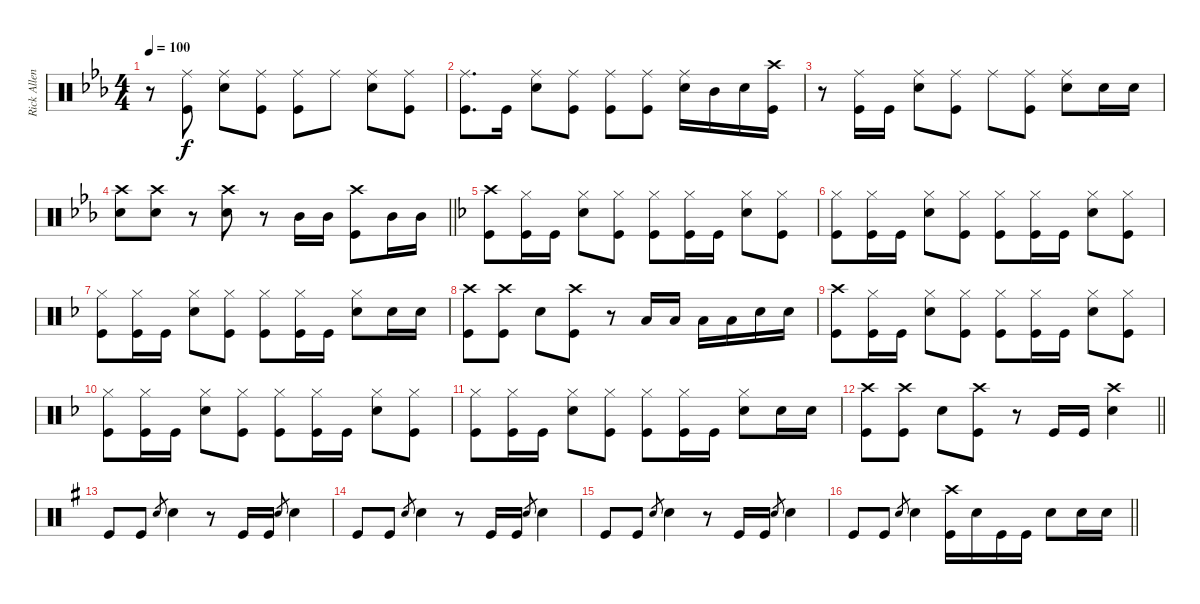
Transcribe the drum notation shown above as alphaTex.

\track ("Rick Allen" "Rick Allen") {instrument percussion}
\staff {score}
\articulation defaults
\ts (4 4)
\tempo 100
\clef neutral
\ks cminor
r.8{dy f} ("Ride (middle)" "Kick (hit)").8 ("Ride (middle)" "Snare (hit) 2").8 ("Ride (middle)" "Kick (hit)").8 ("Ride (middle)" "Kick (hit)").8 "Ride (middle)".8 ("Ride (middle)" "Snare (hit) 2").8 ("Ride (middle)" "Kick (hit)").8 |
("Ride (middle)" "Kick (hit)").8{d} "Kick (hit)".16 ("Ride (middle)" "Snare (hit) 2").8 ("Ride (middle)" "Kick (hit)").8 ("Ride (middle)" "Kick (hit)").8 ("Ride (middle)" "Kick (hit)").8 ("Ride (middle)" "Snare (hit) 2").16 "Mid Tom (hit)".16 "Snare (hit) 2".16 ("Crash high (hit)" "Kick (hit)").16 |
r.8 ("Ride (middle)" "Kick (hit)").16 "Kick (hit)".16 ("Ride (middle)" "Snare (hit) 2").8 ("Ride (middle)" "Kick (hit)").8 "Ride (middle)".8 ("Ride (middle)" "Kick (hit)").8 ("Ride (middle)" "Snare (hit) 2").8 "Snare (hit) 2".16 "Snare (hit) 2".16 |
\barLineRight lightlight
("Crash high (hit)" "Snare (hit) 2").8 ("Crash high (hit)" "Snare (hit) 2").8 r.8 ("Crash high (hit)" "Snare (hit) 2").8 r.8 "Mid Tom (hit)".16 "Mid Tom (hit)".16 ("Crash high (hit)" "Kick (hit)").8 "Mid Tom (hit)".16 "Mid Tom (hit)".16 |
\ks dminor
("Crash high (hit)" "Kick (hit)").8 ("Hi-Hat (closed)" "Kick (hit)").16 "Kick (hit)".16 ("Hi-Hat (closed)" "Snare (hit) 2").8 ("Hi-Hat (closed)" "Kick (hit)").8 ("Hi-Hat (closed)" "Kick (hit)").8 ("Hi-Hat (closed)" "Kick (hit)").16 "Kick (hit)".16 ("Hi-Hat (closed)" "Snare (hit) 2").8 ("Hi-Hat (closed)" "Kick (hit)").8 |
("Hi-Hat (closed)" "Kick (hit)").8 ("Hi-Hat (closed)" "Kick (hit)").16 "Kick (hit)".16 ("Hi-Hat (closed)" "Snare (hit) 2").8 ("Hi-Hat (closed)" "Kick (hit)").8 ("Hi-Hat (closed)" "Kick (hit)").8 ("Hi-Hat (closed)" "Kick (hit)").16 "Kick (hit)".16 ("Hi-Hat (closed)" "Snare (hit) 2").8 ("Hi-Hat (closed)" "Kick (hit)").8 |
("Hi-Hat (closed)" "Kick (hit)").8 ("Hi-Hat (closed)" "Kick (hit)").16 "Kick (hit)".16 ("Hi-Hat (closed)" "Snare (hit) 2").8 ("Hi-Hat (closed)" "Kick (hit)").8 ("Hi-Hat (closed)" "Kick (hit)").8 ("Hi-Hat (closed)" "Kick (hit)").16 "Kick (hit)".16 ("Hi-Hat (closed)" "Snare (hit) 2").8 "Snare (hit) 2".16 "Snare (hit) 2".16 |
("Crash high (hit)" "Kick (hit)").8 ("Crash high (hit)" "Kick (hit)").8 "Snare (hit) 2".8 ("Crash high (hit)" "Kick (hit)").8 r.8 "Low Tom (hit)".16 "Low Tom (hit)".16 "Low Tom (hit)".16 "Low Tom (hit)".16 "Snare (hit) 2".16 "Snare (hit) 2".16 |
("Crash high (hit)" "Kick (hit)").8 ("Hi-Hat (closed)" "Kick (hit)").16 "Kick (hit)".16 ("Hi-Hat (closed)" "Snare (hit) 2").8 ("Hi-Hat (closed)" "Kick (hit)").8 ("Hi-Hat (closed)" "Kick (hit)").8 ("Hi-Hat (closed)" "Kick (hit)").16 "Kick (hit)".16 ("Hi-Hat (closed)" "Snare (hit) 2").8 ("Hi-Hat (closed)" "Kick (hit)").8 |
("Hi-Hat (closed)" "Kick (hit)").8 ("Hi-Hat (closed)" "Kick (hit)").16 "Kick (hit)".16 ("Hi-Hat (closed)" "Snare (hit) 2").8 ("Hi-Hat (closed)" "Kick (hit)").8 ("Hi-Hat (closed)" "Kick (hit)").8 ("Hi-Hat (closed)" "Kick (hit)").16 "Kick (hit)".16 ("Hi-Hat (closed)" "Snare (hit) 2").8 ("Hi-Hat (closed)" "Kick (hit)").8 |
("Hi-Hat (closed)" "Kick (hit)").8 ("Hi-Hat (closed)" "Kick (hit)").16 "Kick (hit)".16 ("Hi-Hat (closed)" "Snare (hit) 2").8 ("Hi-Hat (closed)" "Kick (hit)").8 ("Hi-Hat (closed)" "Kick (hit)").8 ("Hi-Hat (closed)" "Kick (hit)").16 "Kick (hit)".16 ("Hi-Hat (closed)" "Snare (hit) 2").8 "Snare (hit) 2".16 "Snare (hit) 2".16 |
\barLineRight lightlight
("Crash high (hit)" "Kick (hit)").8 ("Crash high (hit)" "Kick (hit)").8 "Snare (hit) 2".8 ("Crash high (hit)" "Kick (hit)").8 r.8 "Kick (hit)".16 "Kick (hit)".16 ("Crash high (hit)" "Snare (hit) 2").4 |
\ks eminor "Kick (hit)".8 "Kick (hit)".8 "Snare (hit) 2".8{gr} "Snare (hit) 2".4
r.8 "Kick (hit)".16 "Kick (hit)".16 "Snare (hit) 2".8{gr} "Snare (hit) 2".4 |
"Kick (hit)".8 "Kick (hit)".8 "Snare (hit) 2".8{gr} "Snare (hit) 2".4 r.8 "Kick (hit)".16 "Kick (hit)".16 "Snare (hit) 2".8{gr} "Snare (hit) 2".4 |
"Kick (hit)".8 "Kick (hit)".8 "Snare (hit) 2".8{gr} "Snare (hit) 2".4 r.8 "Kick (hit)".16 "Kick (hit)".16 "Snare (hit) 2".8{gr} "Snare (hit) 2".4 |
\barLineRight lightlight "Kick (hit)".8 "Kick (hit)".8 "Snare (hit) 2".8{gr} "Snare (hit) 2".4
("Crash high (hit)" "Kick (hit)").16 "Snare (hit) 2".16 "Kick (hit)".16 "Kick (hit)".16 "Snare (hit) 2".8 "Snare (hit) 2".16 "Snare (hit) 2".16
